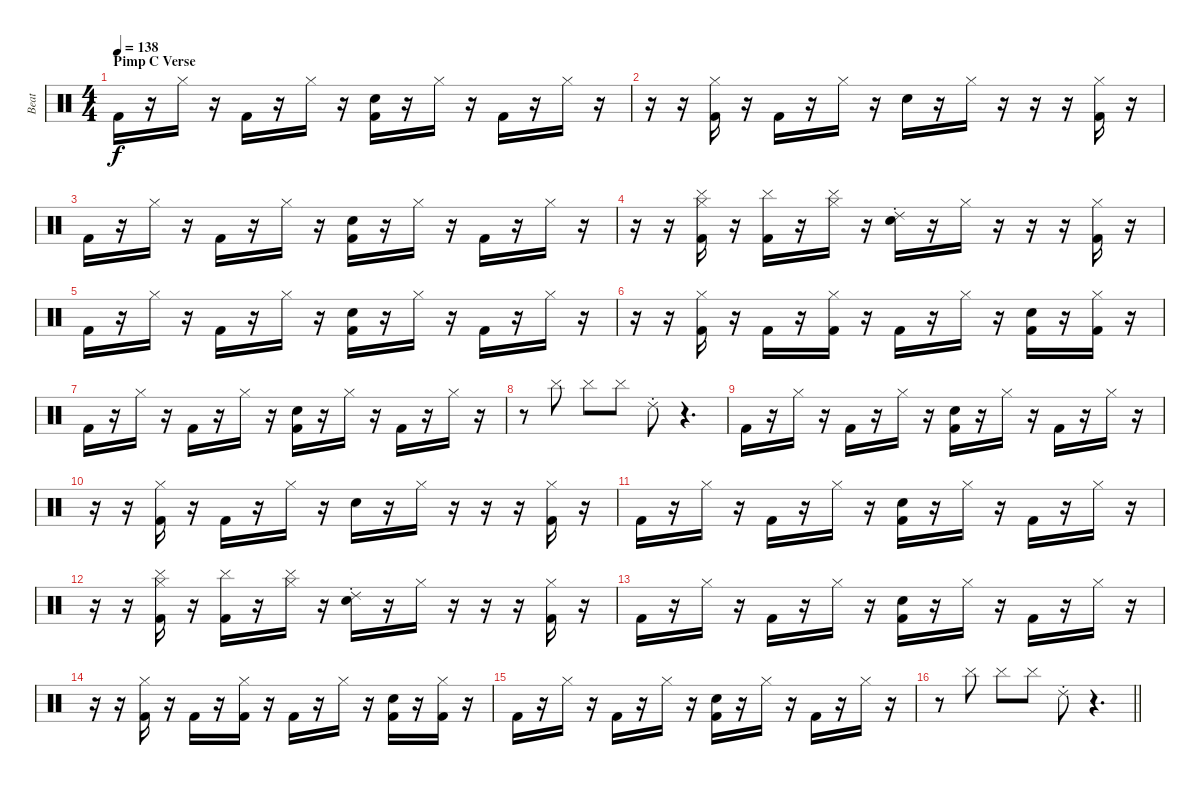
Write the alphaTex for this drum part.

\track ("Beat" "Beat") {instrument percussion}
\staff {score}
\articulation defaults
\ts (4 4)
\section ("" "Pimp C Verse")
\tempo 138
\clef neutral
\ks c "Kick (hit) 2".16{dy f}
r.16 "Hi-Hat (closed)".16 r.16 "Kick (hit) 2".16 r.16 "Hi-Hat (closed)".16 r.16 ("Electric Snare (hit)" "Kick (hit) 2").16 r.16 "Hi-Hat (closed)".16 r.16 "Kick (hit) 2".16 r.16 "Hi-Hat (closed)".16 r.16 |
r.16 r.16 ("Hi-Hat (closed)" "Kick (hit) 2").16 r.16 "Kick (hit) 2".16 r.16 "Hi-Hat (closed)".16 r.16 "Electric Snare (hit)".16 r.16 "Hi-Hat (closed)".16 r.16 r.16 r.16 ("Hi-Hat (closed)" "Kick (hit) 2").16 r.16 |
"Kick (hit) 2".16 r.16 "Hi-Hat (closed)".16 r.16 "Kick (hit) 2".16 r.16 "Hi-Hat (closed)".16 r.16 ("Electric Snare (hit)" "Kick (hit) 2").16 r.16 "Hi-Hat (closed)".16 r.16 "Kick (hit) 2".16 r.16 "Hi-Hat (closed)".16 r.16 |
r.16 r.16 ("Cymbal (hit)" "Hi-Hat (closed)" "Kick (hit) 2").16 r.16 ("Cymbal (hit)" "Kick (hit) 2").16 r.16 ("Cymbal (hit)" "Hi-Hat (closed)").16 r.16 ("Ride (choke) 2" "Electric Snare (hit)").16 r.16 "Hi-Hat (closed)".16 r.16 r.16 r.16 ("Hi-Hat (closed)" "Kick (hit) 2").16 r.16 |
"Kick (hit) 2".16 r.16 "Hi-Hat (closed)".16 r.16 "Kick (hit) 2".16 r.16 "Hi-Hat (closed)".16 r.16 ("Electric Snare (hit)" "Kick (hit) 2").16 r.16 "Hi-Hat (closed)".16 r.16 "Kick (hit) 2".16 r.16 "Hi-Hat (closed)".16 r.16 |
r.16 r.16 ("Hi-Hat (closed)" "Kick (hit) 2").16 r.16 "Kick (hit) 2".16 r.16 ("Hi-Hat (closed)" "Kick (hit) 2").16 r.16 "Kick (hit) 2".16 r.16 "Hi-Hat (closed)".16 r.16 ("Electric Snare (hit)" "Kick (hit) 2").16 r.16 ("Hi-Hat (closed)" "Kick (hit) 2").16 r.16 |
"Kick (hit) 2".16 r.16 "Hi-Hat (closed)".16 r.16 "Kick (hit) 2".16 r.16 "Hi-Hat (closed)".16 r.16 ("Electric Snare (hit)" "Kick (hit) 2").16 r.16 "Hi-Hat (closed)".16 r.16 "Kick (hit) 2".16 r.16 "Hi-Hat (closed)".16 r.16 |
r.8 "Cymbal (hit)".8 "Cymbal (hit)".8 "Cymbal (hit)".8 "Ride (choke) 2".8 r.4{d} |
"Kick (hit) 2".16 r.16 "Hi-Hat (closed)".16 r.16 "Kick (hit) 2".16 r.16 "Hi-Hat (closed)".16 r.16 ("Electric Snare (hit)" "Kick (hit) 2").16 r.16 "Hi-Hat (closed)".16 r.16 "Kick (hit) 2".16 r.16 "Hi-Hat (closed)".16 r.16 |
r.16 r.16 ("Hi-Hat (closed)" "Kick (hit) 2").16 r.16 "Kick (hit) 2".16 r.16 "Hi-Hat (closed)".16 r.16 "Electric Snare (hit)".16 r.16 "Hi-Hat (closed)".16 r.16 r.16 r.16 ("Hi-Hat (closed)" "Kick (hit) 2").16 r.16 |
"Kick (hit) 2".16 r.16 "Hi-Hat (closed)".16 r.16 "Kick (hit) 2".16 r.16 "Hi-Hat (closed)".16 r.16 ("Electric Snare (hit)" "Kick (hit) 2").16 r.16 "Hi-Hat (closed)".16 r.16 "Kick (hit) 2".16 r.16 "Hi-Hat (closed)".16 r.16 |
r.16 r.16 ("Cymbal (hit)" "Hi-Hat (closed)" "Kick (hit) 2").16 r.16 ("Cymbal (hit)" "Kick (hit) 2").16 r.16 ("Cymbal (hit)" "Hi-Hat (closed)").16 r.16 ("Ride (choke) 2" "Electric Snare (hit)").16 r.16 "Hi-Hat (closed)".16 r.16 r.16 r.16 ("Hi-Hat (closed)" "Kick (hit) 2").16 r.16 |
"Kick (hit) 2".16 r.16 "Hi-Hat (closed)".16 r.16 "Kick (hit) 2".16 r.16 "Hi-Hat (closed)".16 r.16 ("Electric Snare (hit)" "Kick (hit) 2").16 r.16 "Hi-Hat (closed)".16 r.16 "Kick (hit) 2".16 r.16 "Hi-Hat (closed)".16 r.16 |
r.16 r.16 ("Hi-Hat (closed)" "Kick (hit) 2").16 r.16 "Kick (hit) 2".16 r.16 ("Hi-Hat (closed)" "Kick (hit) 2").16 r.16 "Kick (hit) 2".16 r.16 "Hi-Hat (closed)".16 r.16 ("Electric Snare (hit)" "Kick (hit) 2").16 r.16 ("Hi-Hat (closed)" "Kick (hit) 2").16 r.16 |
"Kick (hit) 2".16 r.16 "Hi-Hat (closed)".16 r.16 "Kick (hit) 2".16 r.16 "Hi-Hat (closed)".16 r.16 ("Electric Snare (hit)" "Kick (hit) 2").16 r.16 "Hi-Hat (closed)".16 r.16 "Kick (hit) 2".16 r.16 "Hi-Hat (closed)".16 r.16 |
\barLineRight lightlight
r.8 "Cymbal (hit)".8 "Cymbal (hit)".8 "Cymbal (hit)".8 "Ride (choke) 2".8 r.4{d}
